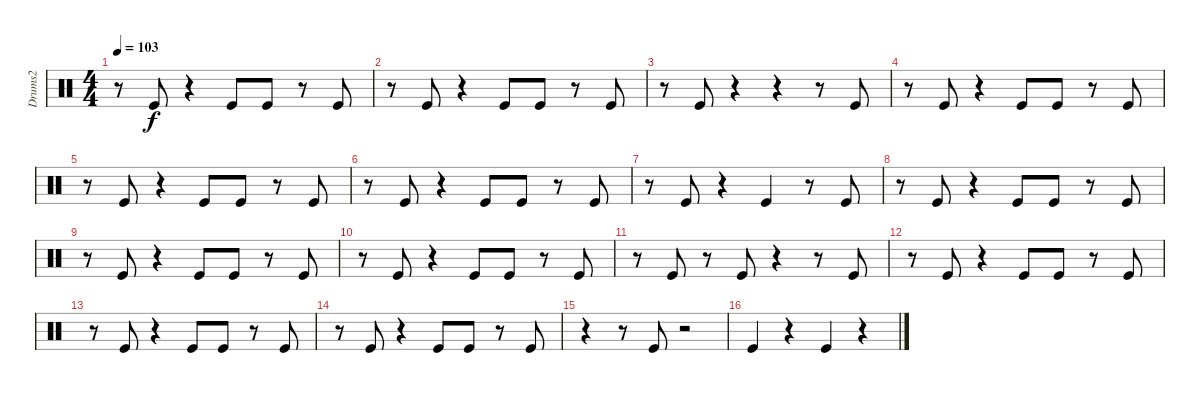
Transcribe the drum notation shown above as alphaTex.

\track ("Drums2" "Drums2") {instrument percussion}
\staff {score}
\articulation defaults
\ts (4 4)
\tempo 103
\clef neutral
\ks c
r.8{dy f} "Kick (hit)".8 r.4 "Kick (hit)".8 "Kick (hit)".8 r.8 "Kick (hit)".8 |
r.8 "Kick (hit)".8 r.4 "Kick (hit)".8 "Kick (hit)".8 r.8 "Kick (hit)".8 |
r.8 "Kick (hit)".8 r.4 r.4 r.8 "Kick (hit)".8 |
r.8 "Kick (hit)".8 r.4 "Kick (hit)".8 "Kick (hit)".8 r.8 "Kick (hit)".8 |
r.8 "Kick (hit)".8 r.4 "Kick (hit)".8 "Kick (hit)".8 r.8 "Kick (hit)".8 |
r.8 "Kick (hit)".8 r.4 "Kick (hit)".8 "Kick (hit)".8 r.8 "Kick (hit)".8 |
r.8 "Kick (hit)".8 r.4 "Kick (hit)".4 r.8 "Kick (hit)".8 |
r.8 "Kick (hit)".8 r.4 "Kick (hit)".8 "Kick (hit)".8 r.8 "Kick (hit)".8 |
r.8 "Kick (hit)".8 r.4 "Kick (hit)".8 "Kick (hit)".8 r.8 "Kick (hit)".8 |
r.8 "Kick (hit)".8 r.4 "Kick (hit)".8 "Kick (hit)".8 r.8 "Kick (hit)".8 |
r.8 "Kick (hit)".8 r.8 "Kick (hit)".8 r.4 r.8 "Kick (hit)".8 |
r.8 "Kick (hit)".8 r.4 "Kick (hit)".8 "Kick (hit)".8 r.8 "Kick (hit)".8 |
r.8 "Kick (hit)".8 r.4 "Kick (hit)".8 "Kick (hit)".8 r.8 "Kick (hit)".8 |
r.8 "Kick (hit)".8 r.4 "Kick (hit)".8 "Kick (hit)".8 r.8 "Kick (hit)".8 |
r.4 r.8 "Kick (hit)".8 r.2 |
"Kick (hit)".4 r.4 "Kick (hit)".4 r.4
